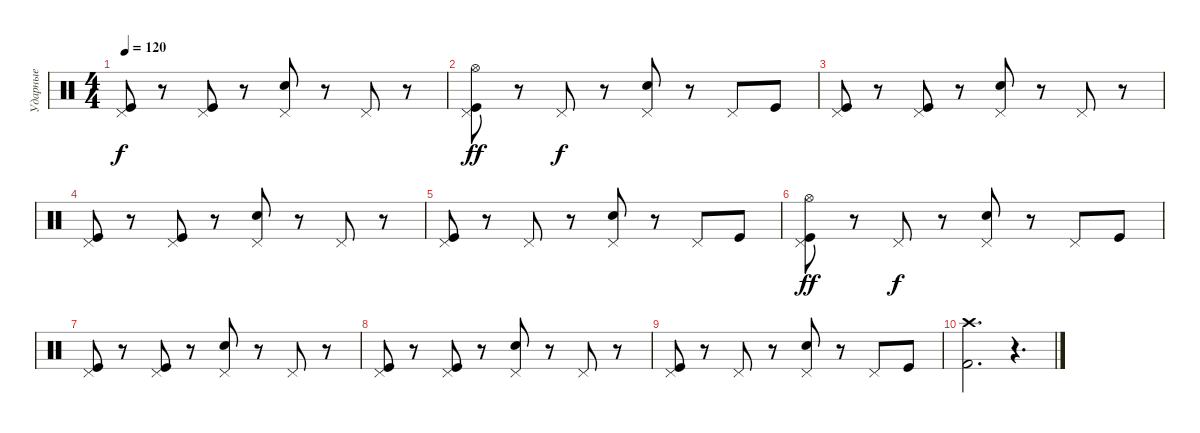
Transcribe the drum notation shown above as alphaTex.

\track ("Ударные" "Ударные") {instrument percussion}
\staff {score}
\articulation defaults
\ts (4 4)
\tempo 120
\clef neutral
\ks c
("Pedal Hi-Hat (hit)" "Kick (hit)").8{dy f} r.8 ("Kick (hit)" "Pedal Hi-Hat (hit)").8 r.8 ("Snare (hit) 2" "Pedal Hi-Hat (hit)").8 r.8 "Pedal Hi-Hat (hit)".8 r.8 |
("Kick (hit)" "Pedal Hi-Hat (hit)" "Hi-Hat (open)").8{dy ff} r.8 "Pedal Hi-Hat (hit)".8{dy f} r.8 ("Snare (hit) 2" "Pedal Hi-Hat (hit)").8 r.8 "Pedal Hi-Hat (hit)".8 "Kick (hit)".8 |
("Pedal Hi-Hat (hit)" "Kick (hit)").8 r.8 ("Kick (hit)" "Pedal Hi-Hat (hit)").8 r.8 ("Snare (hit) 2" "Pedal Hi-Hat (hit)").8 r.8 "Pedal Hi-Hat (hit)".8 r.8 |
("Pedal Hi-Hat (hit)" "Kick (hit)").8 r.8 ("Kick (hit)" "Pedal Hi-Hat (hit)").8 r.8 ("Snare (hit) 2" "Pedal Hi-Hat (hit)").8 r.8 "Pedal Hi-Hat (hit)".8 r.8 |
("Kick (hit)" "Pedal Hi-Hat (hit)").8 r.8 "Pedal Hi-Hat (hit)".8 r.8 ("Snare (hit) 2" "Pedal Hi-Hat (hit)").8 r.8 "Pedal Hi-Hat (hit)".8 "Kick (hit)".8 |
("Kick (hit)" "Pedal Hi-Hat (hit)" "Hi-Hat (open)").8{dy ff} r.8 "Pedal Hi-Hat (hit)".8{dy f} r.8 ("Snare (hit) 2" "Pedal Hi-Hat (hit)").8 r.8 "Pedal Hi-Hat (hit)".8 "Kick (hit)".8 |
("Pedal Hi-Hat (hit)" "Kick (hit)").8 r.8 ("Kick (hit)" "Pedal Hi-Hat (hit)").8 r.8 ("Snare (hit) 2" "Pedal Hi-Hat (hit)").8 r.8 "Pedal Hi-Hat (hit)".8 r.8 |
("Pedal Hi-Hat (hit)" "Kick (hit)").8 r.8 ("Kick (hit)" "Pedal Hi-Hat (hit)").8 r.8 ("Snare (hit) 2" "Pedal Hi-Hat (hit)").8 r.8 "Pedal Hi-Hat (hit)".8 r.8 |
("Kick (hit)" "Pedal Hi-Hat (hit)").8 r.8 "Pedal Hi-Hat (hit)".8 r.8 ("Snare (hit) 2" "Pedal Hi-Hat (hit)").8 r.8 "Pedal Hi-Hat (hit)".8 "Kick (hit)".8 |
("Kick (hit) 2" "Crash high (hit)").2{d} r.4{d}
